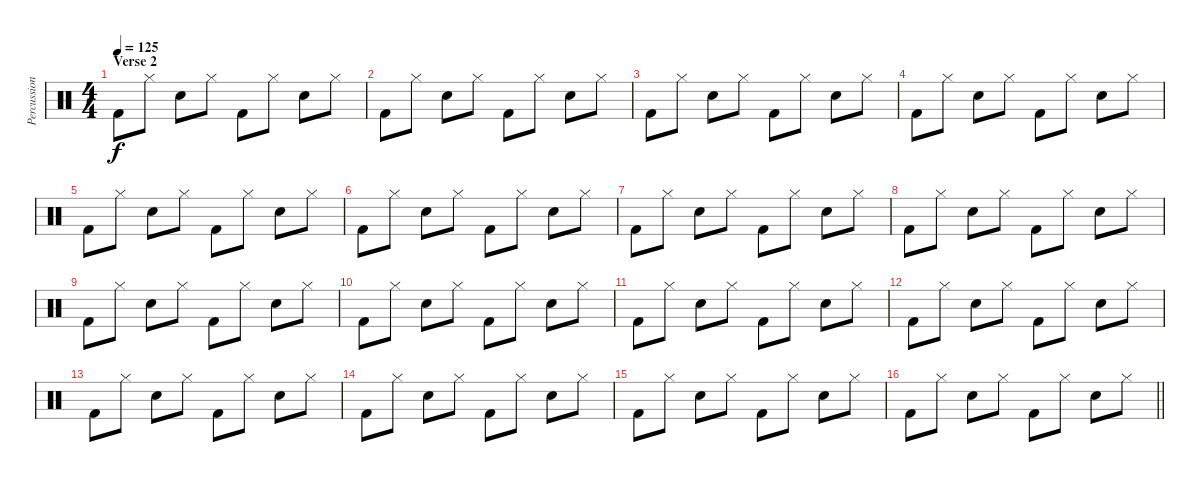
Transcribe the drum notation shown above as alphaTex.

\track ("Percussion" "Percussion") {instrument percussion}
\staff {score}
\articulation defaults
\ts (4 4)
\section ("" "Verse 2")
\tempo 125
\clef neutral
\ks c "Kick (hit) 2".8{dy f} "Hi-Hat (closed)".8 "Electric Snare (hit)".8 "Hi-Hat (closed)".8 "Kick (hit) 2".8 "Hi-Hat (closed)".8 "Electric Snare (hit)".8 "Hi-Hat (closed)".8
|
"Kick (hit) 2".8 "Hi-Hat (closed)".8 "Electric Snare (hit)".8 "Hi-Hat (closed)".8 "Kick (hit) 2".8 "Hi-Hat (closed)".8 "Electric Snare (hit)".8 "Hi-Hat (closed)".8 |
"Kick (hit) 2".8 "Hi-Hat (closed)".8 "Electric Snare (hit)".8 "Hi-Hat (closed)".8 "Kick (hit) 2".8 "Hi-Hat (closed)".8 "Electric Snare (hit)".8 "Hi-Hat (closed)".8 |
"Kick (hit) 2".8 "Hi-Hat (closed)".8 "Electric Snare (hit)".8 "Hi-Hat (closed)".8 "Kick (hit) 2".8 "Hi-Hat (closed)".8 "Electric Snare (hit)".8 "Hi-Hat (closed)".8 |
"Kick (hit) 2".8 "Hi-Hat (closed)".8 "Electric Snare (hit)".8 "Hi-Hat (closed)".8 "Kick (hit) 2".8 "Hi-Hat (closed)".8 "Electric Snare (hit)".8 "Hi-Hat (closed)".8 |
"Kick (hit) 2".8 "Hi-Hat (closed)".8 "Electric Snare (hit)".8 "Hi-Hat (closed)".8 "Kick (hit) 2".8 "Hi-Hat (closed)".8 "Electric Snare (hit)".8 "Hi-Hat (closed)".8 |
"Kick (hit) 2".8 "Hi-Hat (closed)".8 "Electric Snare (hit)".8 "Hi-Hat (closed)".8 "Kick (hit) 2".8 "Hi-Hat (closed)".8 "Electric Snare (hit)".8 "Hi-Hat (closed)".8 |
"Kick (hit) 2".8 "Hi-Hat (closed)".8 "Electric Snare (hit)".8 "Hi-Hat (closed)".8 "Kick (hit) 2".8 "Hi-Hat (closed)".8 "Electric Snare (hit)".8 "Hi-Hat (closed)".8 |
"Kick (hit) 2".8 "Hi-Hat (closed)".8 "Electric Snare (hit)".8 "Hi-Hat (closed)".8 "Kick (hit) 2".8 "Hi-Hat (closed)".8 "Electric Snare (hit)".8 "Hi-Hat (closed)".8 |
"Kick (hit) 2".8 "Hi-Hat (closed)".8 "Electric Snare (hit)".8 "Hi-Hat (closed)".8 "Kick (hit) 2".8 "Hi-Hat (closed)".8 "Electric Snare (hit)".8 "Hi-Hat (closed)".8 |
"Kick (hit) 2".8 "Hi-Hat (closed)".8 "Electric Snare (hit)".8 "Hi-Hat (closed)".8 "Kick (hit) 2".8 "Hi-Hat (closed)".8 "Electric Snare (hit)".8 "Hi-Hat (closed)".8 |
"Kick (hit) 2".8 "Hi-Hat (closed)".8 "Electric Snare (hit)".8 "Hi-Hat (closed)".8 "Kick (hit) 2".8 "Hi-Hat (closed)".8 "Electric Snare (hit)".8 "Hi-Hat (closed)".8 |
"Kick (hit) 2".8 "Hi-Hat (closed)".8 "Electric Snare (hit)".8 "Hi-Hat (closed)".8 "Kick (hit) 2".8 "Hi-Hat (closed)".8 "Electric Snare (hit)".8 "Hi-Hat (closed)".8 |
"Kick (hit) 2".8 "Hi-Hat (closed)".8 "Electric Snare (hit)".8 "Hi-Hat (closed)".8 "Kick (hit) 2".8 "Hi-Hat (closed)".8 "Electric Snare (hit)".8 "Hi-Hat (closed)".8 |
"Kick (hit) 2".8 "Hi-Hat (closed)".8 "Electric Snare (hit)".8 "Hi-Hat (closed)".8 "Kick (hit) 2".8 "Hi-Hat (closed)".8 "Electric Snare (hit)".8 "Hi-Hat (closed)".8 |
\barLineRight lightlight "Kick (hit) 2".8 "Hi-Hat (closed)".8 "Electric Snare (hit)".8 "Hi-Hat (closed)".8 "Kick (hit) 2".8 "Hi-Hat (closed)".8 "Electric Snare (hit)".8 "Hi-Hat (closed)".8
